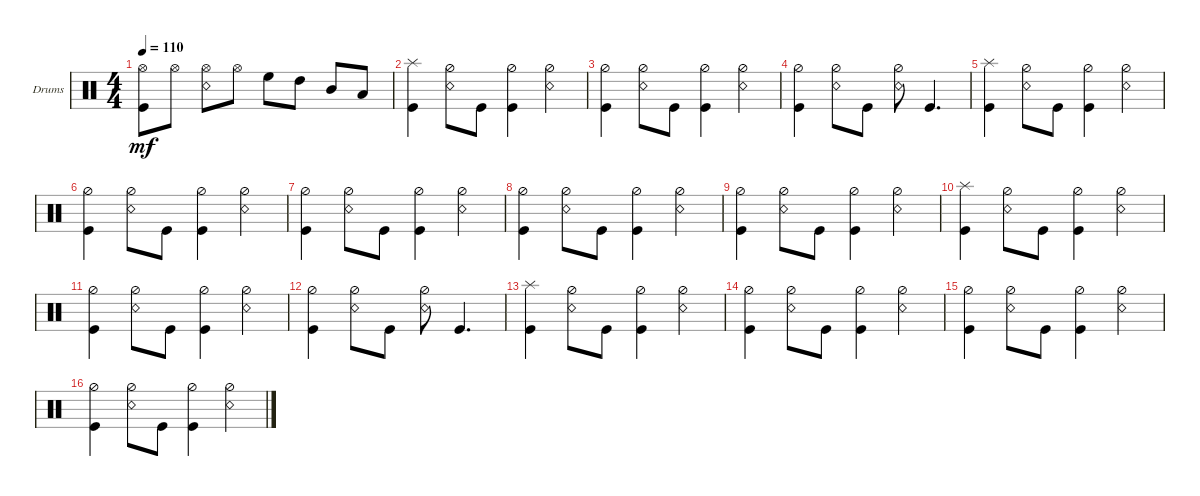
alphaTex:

\bracketExtendMode groupsimilarinstruments
\firstSystemTrackNameOrientation horizontal
\otherSystemsTrackNameOrientation horizontal
\track ("Drumkit" "Drums") {instrument percussion}
\staff {score}
\articulation defaults
\ts (4 4)
\tempo 110
\clef neutral
\ks c
("Kick (hit)" "Hi-Hat (open)").8{dy mf} "Hi-Hat (open)".8 ("Hi-Hat (open)" "Snare (rim shot)").8 "Hi-Hat (open)".8 "High Floor Tom (hit)".8 "High Tom (hit)".8 "Mid Tom (hit)".8 "Low Tom (hit)".8 |
("Kick (hit)" "Splash (hit)").4 ("Snare (rim shot)" "Hi-Hat (half)").8 "Kick (hit)".8 ("Kick (hit)" "Hi-Hat (half)").4 ("Snare (rim shot)" "Hi-Hat (half)").4 |
("Kick (hit)" "Hi-Hat (half)").4 ("Snare (rim shot)" "Hi-Hat (half)").8 "Kick (hit)".8 ("Kick (hit)" "Hi-Hat (half)").4 ("Snare (rim shot)" "Hi-Hat (half)").4 |
("Kick (hit)" "Hi-Hat (half)").4 ("Snare (rim shot)" "Hi-Hat (half)").8 "Kick (hit)".8 ("Snare (rim shot)" "Hi-Hat (half)").8 "Kick (hit)".4{d} |
("Kick (hit)" "Splash (hit)").4 ("Snare (rim shot)" "Hi-Hat (half)").8 "Kick (hit)".8 ("Kick (hit)" "Hi-Hat (half)").4 ("Snare (rim shot)" "Hi-Hat (half)").4 |
("Kick (hit)" "Hi-Hat (half)").4 ("Snare (rim shot)" "Hi-Hat (half)").8 "Kick (hit)".8 ("Kick (hit)" "Hi-Hat (half)").4 ("Snare (rim shot)" "Hi-Hat (half)").4 |
("Kick (hit)" "Hi-Hat (half)").4 ("Snare (rim shot)" "Hi-Hat (half)").8 "Kick (hit)".8 ("Kick (hit)" "Hi-Hat (half)").4 ("Snare (rim shot)" "Hi-Hat (half)").4 |
("Kick (hit)" "Hi-Hat (half)").4 ("Snare (rim shot)" "Hi-Hat (half)").8 "Kick (hit)".8 ("Kick (hit)" "Hi-Hat (half)").4 ("Snare (rim shot)" "Hi-Hat (half)").4 |
("Kick (hit)" "Hi-Hat (half)").4 ("Snare (rim shot)" "Hi-Hat (half)").8 "Kick (hit)".8 ("Kick (hit)" "Hi-Hat (half)").4 ("Snare (rim shot)" "Hi-Hat (half)").4 |
("Kick (hit)" "Splash (hit)").4 ("Snare (rim shot)" "Hi-Hat (half)").8 "Kick (hit)".8 ("Kick (hit)" "Hi-Hat (half)").4 ("Snare (rim shot)" "Hi-Hat (half)").4 |
("Kick (hit)" "Hi-Hat (half)").4 ("Snare (rim shot)" "Hi-Hat (half)").8 "Kick (hit)".8 ("Kick (hit)" "Hi-Hat (half)").4 ("Snare (rim shot)" "Hi-Hat (half)").4 |
("Kick (hit)" "Hi-Hat (half)").4 ("Snare (rim shot)" "Hi-Hat (half)").8 "Kick (hit)".8 ("Snare (rim shot)" "Hi-Hat (half)").8 "Kick (hit)".4{d} |
("Kick (hit)" "Splash (hit)").4 ("Snare (rim shot)" "Hi-Hat (half)").8 "Kick (hit)".8 ("Kick (hit)" "Hi-Hat (half)").4 ("Snare (rim shot)" "Hi-Hat (half)").4 |
("Kick (hit)" "Hi-Hat (half)").4 ("Snare (rim shot)" "Hi-Hat (half)").8 "Kick (hit)".8 ("Kick (hit)" "Hi-Hat (half)").4 ("Snare (rim shot)" "Hi-Hat (half)").4 |
("Kick (hit)" "Hi-Hat (half)").4 ("Snare (rim shot)" "Hi-Hat (half)").8 "Kick (hit)".8 ("Kick (hit)" "Hi-Hat (half)").4 ("Snare (rim shot)" "Hi-Hat (half)").4 |
("Kick (hit)" "Hi-Hat (half)").4 ("Snare (rim shot)" "Hi-Hat (half)").8 "Kick (hit)".8 ("Kick (hit)" "Hi-Hat (half)").4 ("Snare (rim shot)" "Hi-Hat (half)").4
